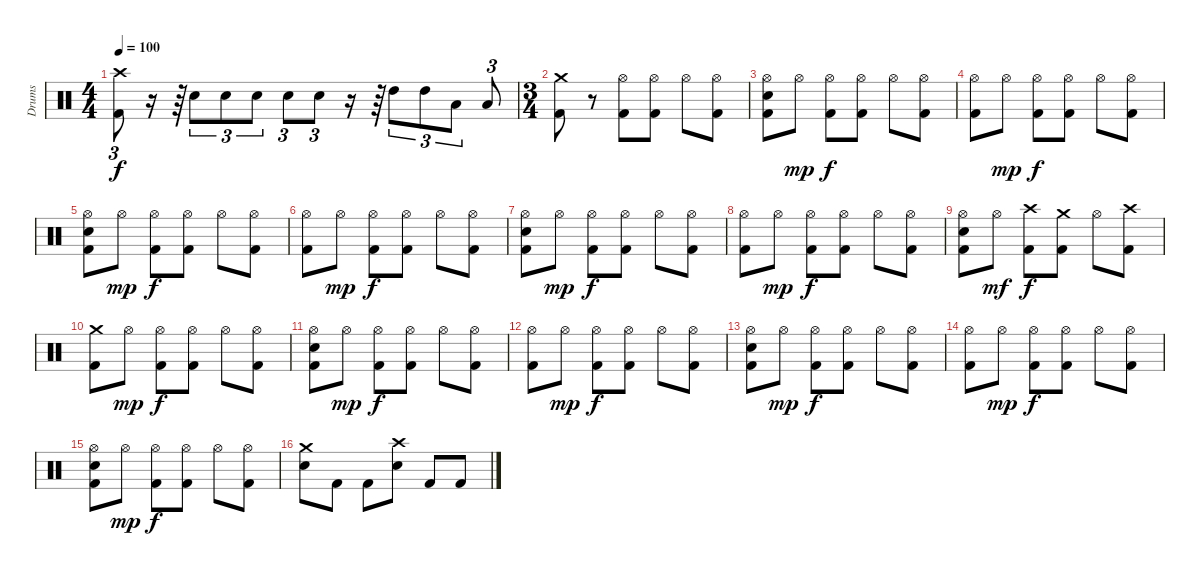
\track ("Drums" "Drums") {instrument percussion}
\staff {score}
\articulation defaults
\ts (4 4)
\tempo 100
\clef neutral
\ks c
("Crash high (hit)" "Kick (hit) 2").8{tu (3 2) dy f} r.16 r.64 "Snare (hit) 2".8{tu (3 2)} "Snare (hit) 2".8{tu (3 2)} "Snare (hit) 2".8{tu (3 2)} "Snare (hit) 2".8{tu (3 2)} "Snare (hit) 2".8{tu (3 2)} r.16 r.64 "High Tom (hit)".8{tu (3 2)} "High Tom (hit)".8{tu (3 2)} "Low Tom (hit)".8{tu (3 2)} "Low Tom (hit)".8{tu (3 2)} |
\ts (3 4)
("Crash medium (hit)" "Kick (hit) 2").8 r.8 ("Hi-Hat (open)" "Kick (hit) 2").8 ("Hi-Hat (open)" "Kick (hit) 2").8 "Hi-Hat (open)".8 ("Hi-Hat (open)" "Kick (hit) 2").8 |
("Hi-Hat (open)" "Snare (hit) 2" "Kick (hit) 2").8 "Hi-Hat (open)".8{dy mp} ("Hi-Hat (open)" "Kick (hit) 2").8{dy f} ("Hi-Hat (open)" "Kick (hit) 2").8 "Hi-Hat (open)".8 ("Hi-Hat (open)" "Kick (hit) 2").8 |
("Hi-Hat (open)" "Kick (hit) 2").8 "Hi-Hat (open)".8{dy mp} ("Hi-Hat (open)" "Kick (hit) 2").8{dy f} ("Hi-Hat (open)" "Kick (hit) 2").8 "Hi-Hat (open)".8 ("Hi-Hat (open)" "Kick (hit) 2").8 |
("Hi-Hat (open)" "Snare (hit) 2" "Kick (hit) 2").8 "Hi-Hat (open)".8{dy mp} ("Hi-Hat (open)" "Kick (hit) 2").8{dy f} ("Hi-Hat (open)" "Kick (hit) 2").8 "Hi-Hat (open)".8 ("Hi-Hat (open)" "Kick (hit) 2").8 |
("Hi-Hat (open)" "Kick (hit) 2").8 "Hi-Hat (open)".8{dy mp} ("Hi-Hat (open)" "Kick (hit) 2").8{dy f} ("Hi-Hat (open)" "Kick (hit) 2").8 "Hi-Hat (open)".8 ("Hi-Hat (open)" "Kick (hit) 2").8 |
("Hi-Hat (open)" "Snare (hit) 2" "Kick (hit) 2").8 "Hi-Hat (open)".8{dy mp} ("Hi-Hat (open)" "Kick (hit) 2").8{dy f} ("Hi-Hat (open)" "Kick (hit) 2").8 "Hi-Hat (open)".8 ("Hi-Hat (open)" "Kick (hit) 2").8 |
("Hi-Hat (open)" "Kick (hit) 2").8 "Hi-Hat (open)".8{dy mp} ("Hi-Hat (open)" "Kick (hit) 2").8{dy f} ("Hi-Hat (open)" "Kick (hit) 2").8 "Hi-Hat (open)".8 ("Hi-Hat (open)" "Kick (hit) 2").8 |
("Hi-Hat (open)" "Snare (hit) 2" "Kick (hit) 2").8 "Hi-Hat (open)".8{dy mf} ("Crash high (hit)" "Kick (hit) 2").8{dy f} ("Crash medium (hit)" "Kick (hit) 2").8 "Hi-Hat (open)".8 ("Crash high (hit)" "Kick (hit) 2").8 |
("Crash medium (hit)" "Kick (hit) 2").8 "Hi-Hat (open)".8{dy mp} ("Hi-Hat (open)" "Kick (hit) 2").8{dy f} ("Hi-Hat (open)" "Kick (hit) 2").8 "Hi-Hat (open)".8 ("Hi-Hat (open)" "Kick (hit) 2").8 |
("Hi-Hat (open)" "Snare (hit) 2" "Kick (hit) 2").8 "Hi-Hat (open)".8{dy mp} ("Hi-Hat (open)" "Kick (hit) 2").8{dy f} ("Hi-Hat (open)" "Kick (hit) 2").8 "Hi-Hat (open)".8 ("Hi-Hat (open)" "Kick (hit) 2").8 |
("Hi-Hat (open)" "Kick (hit) 2").8 "Hi-Hat (open)".8{dy mp} ("Hi-Hat (open)" "Kick (hit) 2").8{dy f} ("Hi-Hat (open)" "Kick (hit) 2").8 "Hi-Hat (open)".8 ("Hi-Hat (open)" "Kick (hit) 2").8 |
("Hi-Hat (open)" "Snare (hit) 2" "Kick (hit) 2").8 "Hi-Hat (open)".8{dy mp} ("Hi-Hat (open)" "Kick (hit) 2").8{dy f} ("Hi-Hat (open)" "Kick (hit) 2").8 "Hi-Hat (open)".8 ("Hi-Hat (open)" "Kick (hit) 2").8 |
("Hi-Hat (open)" "Kick (hit) 2").8 "Hi-Hat (open)".8{dy mp} ("Hi-Hat (open)" "Kick (hit) 2").8{dy f} ("Hi-Hat (open)" "Kick (hit) 2").8 "Hi-Hat (open)".8 ("Hi-Hat (open)" "Kick (hit) 2").8 |
("Hi-Hat (open)" "Snare (hit) 2" "Kick (hit) 2").8 "Hi-Hat (open)".8{dy mp} ("Hi-Hat (open)" "Kick (hit) 2").8{dy f} ("Hi-Hat (open)" "Kick (hit) 2").8 "Hi-Hat (open)".8 ("Hi-Hat (open)" "Kick (hit) 2").8 |
("Crash medium (hit)" "Snare (hit) 2").8 "Kick (hit) 2".8 "Kick (hit) 2".8 ("Crash high (hit)" "Snare (hit) 2").8 "Kick (hit) 2".8 "Kick (hit) 2".8
